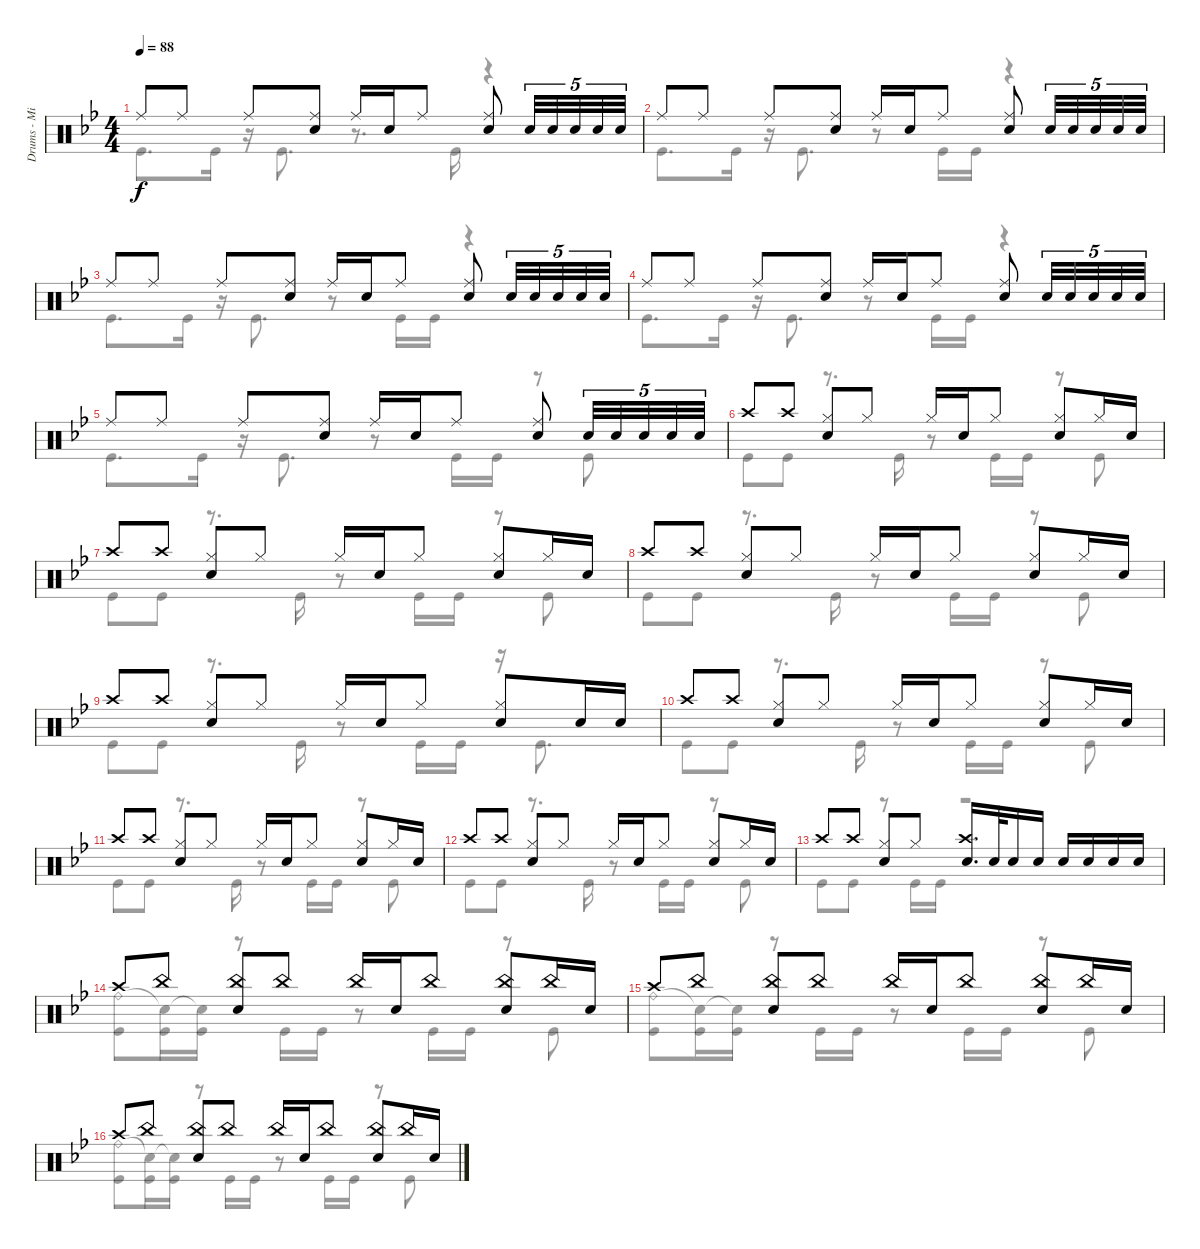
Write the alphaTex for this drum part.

\track ("Drums - Mike Portnoy" "Drums - Mi") {instrument percussion}
\staff {score}
\articulation defaults
\voice
\ts (4 4)
\tempo 88
\clef neutral
\ks bb "Ride (middle)".8{dy f} "Ride (middle)".8 "Ride (middle)".8
("Ride (middle)" "Snare (hit) 2").8 "Ride (middle)".16 "Snare (hit) 2".16 "Ride (middle)".8 ("Ride (middle)" "Snare (hit) 2").8 "Snare (hit) 2".32{tu (5 4)} "Snare (hit) 2".32{tu (5 4)} "Snare (hit) 2".32{tu (5 4)} "Snare (hit) 2".32{tu (5 4)} "Snare (hit) 2".32{tu (5 4)} |
"Ride (middle)".8 "Ride (middle)".8 "Ride (middle)".8 ("Ride (middle)" "Snare (hit) 2").8 "Ride (middle)".16 "Snare (hit) 2".16 "Ride (middle)".8 ("Ride (middle)" "Snare (hit) 2").8 "Snare (hit) 2".32{tu (5 4)} "Snare (hit) 2".32{tu (5 4)} "Snare (hit) 2".32{tu (5 4)} "Snare (hit) 2".32{tu (5 4)} "Snare (hit) 2".32{tu (5 4)} |
"Ride (middle)".8 "Ride (middle)".8 "Ride (middle)".8 ("Ride (middle)" "Snare (hit) 2").8 "Ride (middle)".16 "Snare (hit) 2".16 "Ride (middle)".8 ("Ride (middle)" "Snare (hit) 2").8 "Snare (hit) 2".32{tu (5 4)} "Snare (hit) 2".32{tu (5 4)} "Snare (hit) 2".32{tu (5 4)} "Snare (hit) 2".32{tu (5 4)} "Snare (hit) 2".32{tu (5 4)} |
"Ride (middle)".8 "Ride (middle)".8 "Ride (middle)".8 ("Ride (middle)" "Snare (hit) 2").8 "Ride (middle)".16 "Snare (hit) 2".16 "Ride (middle)".8 ("Ride (middle)" "Snare (hit) 2").8 "Snare (hit) 2".32{tu (5 4)} "Snare (hit) 2".32{tu (5 4)} "Snare (hit) 2".32{tu (5 4)} "Snare (hit) 2".32{tu (5 4)} "Snare (hit) 2".32{tu (5 4)} |
"Ride (middle)".8 "Ride (middle)".8 "Ride (middle)".8 ("Ride (middle)" "Snare (hit) 2").8 "Ride (middle)".16 "Snare (hit) 2".16 "Ride (middle)".8 ("Ride (middle)" "Snare (hit) 2").8 "Snare (hit) 2".32{tu (5 4)} "Snare (hit) 2".32{tu (5 4)} "Snare (hit) 2".32{tu (5 4)} "Snare (hit) 2".32{tu (5 4)} "Snare (hit) 2".32{tu (5 4)} |
"Crash high (hit)".8 "Crash high (hit)".8 ("Hi-Hat (closed)" "Snare (hit) 2").8 "Hi-Hat (closed)".8 "Hi-Hat (closed)".16 "Snare (hit) 2".16 "Hi-Hat (closed)".8 ("Hi-Hat (closed)" "Snare (hit) 2").8 "Hi-Hat (closed)".16 "Snare (hit) 2".16 |
"Crash high (hit)".8 "Crash high (hit)".8 ("Hi-Hat (closed)" "Snare (hit) 2").8 "Hi-Hat (closed)".8 "Hi-Hat (closed)".16 "Snare (hit) 2".16 "Hi-Hat (closed)".8 ("Hi-Hat (closed)" "Snare (hit) 2").8 "Hi-Hat (closed)".16 "Snare (hit) 2".16 |
"Crash high (hit)".8 "Crash high (hit)".8 ("Hi-Hat (closed)" "Snare (hit) 2").8 "Hi-Hat (closed)".8 "Hi-Hat (closed)".16 "Snare (hit) 2".16 "Hi-Hat (closed)".8 ("Hi-Hat (closed)" "Snare (hit) 2").8 "Hi-Hat (closed)".16 "Snare (hit) 2".16 |
"Crash high (hit)".8 "Crash high (hit)".8 ("Hi-Hat (closed)" "Snare (hit) 2").8 "Hi-Hat (closed)".8 "Hi-Hat (closed)".16 "Snare (hit) 2".16 "Hi-Hat (closed)".8 ("Hi-Hat (closed)" "Snare (hit) 2").8 "Snare (hit) 2".16 "Snare (hit) 2".16 |
"Crash high (hit)".8 "Crash high (hit)".8 ("Hi-Hat (closed)" "Snare (hit) 2").8 "Hi-Hat (closed)".8 "Hi-Hat (closed)".16 "Snare (hit) 2".16 "Hi-Hat (closed)".8 ("Hi-Hat (closed)" "Snare (hit) 2").8 "Hi-Hat (closed)".16 "Snare (hit) 2".16 |
"Crash high (hit)".8 "Crash high (hit)".8 ("Hi-Hat (closed)" "Snare (hit) 2").8 "Hi-Hat (closed)".8 "Hi-Hat (closed)".16 "Snare (hit) 2".16 "Hi-Hat (closed)".8 ("Hi-Hat (closed)" "Snare (hit) 2").8 "Hi-Hat (closed)".16 "Snare (hit) 2".16 |
"Crash high (hit)".8 "Crash high (hit)".8 ("Hi-Hat (closed)" "Snare (hit) 2").8 "Hi-Hat (closed)".8 "Hi-Hat (closed)".16 "Snare (hit) 2".16 "Hi-Hat (closed)".8 ("Hi-Hat (closed)" "Snare (hit) 2").8 "Hi-Hat (closed)".16 "Snare (hit) 2".16 |
"Crash high (hit)".8 "Crash high (hit)".8 ("Hi-Hat (closed)" "Snare (hit) 2").8 "Hi-Hat (closed)".8 ("Crash high (hit)" "Snare (hit) 2").16{d} "Snare (hit) 2".32 "Snare (hit) 2".16 "Snare (hit) 2".16 "Snare (hit) 2".16 "Snare (hit) 2".16 "Snare (hit) 2".16 "Snare (hit) 2".16 |
"Crash high (hit)".8 "China (hit)".8 ("China (hit)" "Snare (hit) 2").8 "China (hit)".8 "China (hit)".16 "Snare (hit) 2".16 "China (hit)".8 ("China (hit)" "Snare (hit) 2").8 "China (hit)".16 "Snare (hit) 2".16 |
"Crash high (hit)".8 "China (hit)".8 ("China (hit)" "Snare (hit) 2").8 "China (hit)".8 "China (hit)".16 "Snare (hit) 2".16 "China (hit)".8 ("China (hit)" "Snare (hit) 2").8 "China (hit)".16 "Snare (hit) 2".16 |
"Crash high (hit)".8 "China (hit)".8 ("China (hit)" "Snare (hit) 2").8 "China (hit)".8 "China (hit)".16 "Snare (hit) 2".16 "China (hit)".8 ("China (hit)" "Snare (hit) 2").8 "China (hit)".16 "Snare (hit) 2".16
\voice
\clef neutral
\ottava regular
\simile none
\ks bb "Kick (hit)".8{d dy f} "Kick (hit)".16
r.16 "Kick (hit)".8{d} r.8{d} "Kick (hit)".16 r.4 |
"Kick (hit)".8{d} "Kick (hit)".16 r.16 "Kick (hit)".8{d} r.8 "Kick (hit)".16 "Kick (hit)".16 r.4 |
"Kick (hit)".8{d} "Kick (hit)".16 r.16 "Kick (hit)".8{d} r.8 "Kick (hit)".16 "Kick (hit)".16 r.4 |
"Kick (hit)".8{d} "Kick (hit)".16 r.16 "Kick (hit)".8{d} r.8 "Kick (hit)".16 "Kick (hit)".16 r.4 |
"Kick (hit)".8{d} "Kick (hit)".16 r.16 "Kick (hit)".8{d} r.8 "Kick (hit)".16 "Kick (hit)".16 r.8 "Kick (hit)".8 |
"Kick (hit)".8 "Kick (hit)".8 r.8{d} "Kick (hit)".16 r.8 "Kick (hit)".16 "Kick (hit)".16 r.8 "Kick (hit)".8 |
"Kick (hit)".8 "Kick (hit)".8 r.8{d} "Kick (hit)".16 r.8 "Kick (hit)".16 "Kick (hit)".16 r.8 "Kick (hit)".8 |
"Kick (hit)".8 "Kick (hit)".8 r.8{d} "Kick (hit)".16 r.8 "Kick (hit)".16 "Kick (hit)".16 r.8 "Kick (hit)".8 |
"Kick (hit)".8 "Kick (hit)".8 r.8{d} "Kick (hit)".16 r.8 "Kick (hit)".16 "Kick (hit)".16 r.16 "Kick (hit)".8{d} |
"Kick (hit)".8 "Kick (hit)".8 r.8{d} "Kick (hit)".16 r.8 "Kick (hit)".16 "Kick (hit)".16 r.8 "Kick (hit)".8 |
"Kick (hit)".8 "Kick (hit)".8 r.8{d} "Kick (hit)".16 r.8 "Kick (hit)".16 "Kick (hit)".16 r.8 "Kick (hit)".8 |
"Kick (hit)".8 "Kick (hit)".8 r.8{d} "Kick (hit)".16 r.8 "Kick (hit)".16 "Kick (hit)".16 r.8 "Kick (hit)".8 |
"Kick (hit)".8 "Kick (hit)".8 r.8 "Kick (hit)".16 "Kick (hit)".16 r.2 |
("Kick (hit)" "Ride (bell)").8 ("Kick (hit)" "Snare (hit)"{t}).16 ("Kick (hit)" "Snare (hit)"{t}).16 r.8 "Kick (hit)".16 "Kick (hit)".16 r.8 "Kick (hit)".16 "Kick (hit)".16 r.8 "Kick (hit)".8 |
("Kick (hit)" "Ride (bell)").8 ("Kick (hit)" "Snare (hit)"{t}).16 ("Kick (hit)" "Snare (hit)"{t}).16 r.8 "Kick (hit)".16 "Kick (hit)".16 r.8 "Kick (hit)".16 "Kick (hit)".16 r.8 "Kick (hit)".8 |
("Kick (hit)" "Ride (bell)").8 ("Kick (hit)" "Snare (hit)"{t}).16 ("Kick (hit)" "Snare (hit)"{t}).16 r.8 "Kick (hit)".16 "Kick (hit)".16 r.8 "Kick (hit)".16 "Kick (hit)".16 r.8 "Kick (hit)".8
